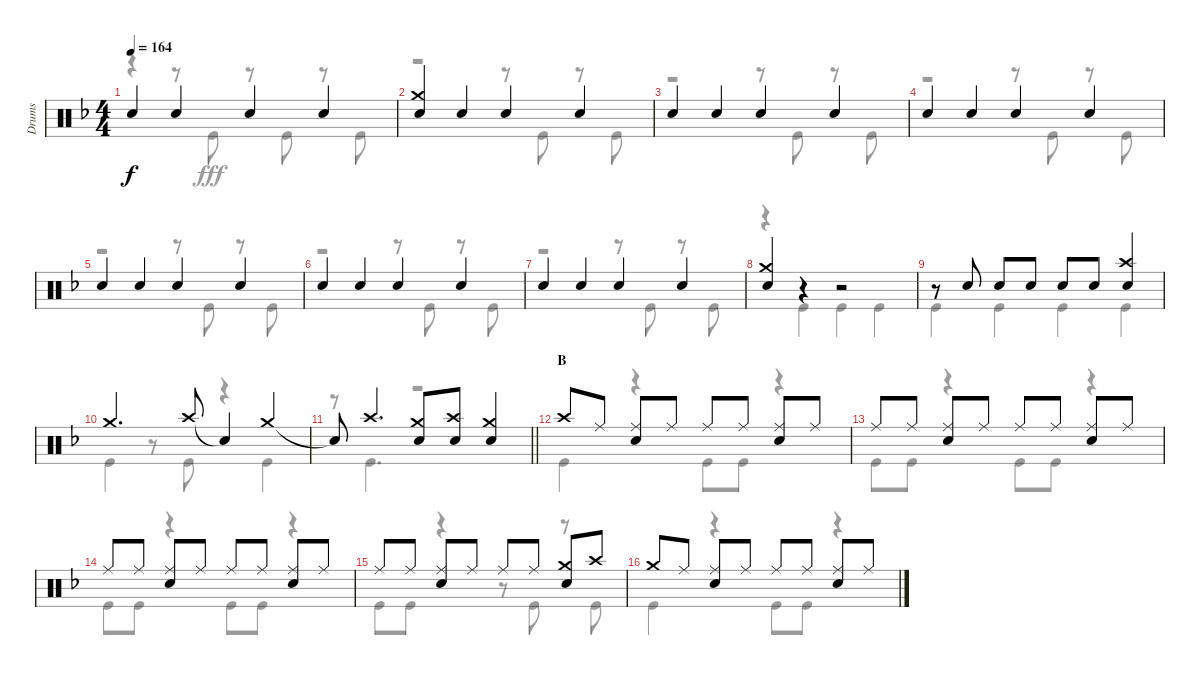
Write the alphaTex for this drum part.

\track ("Drums" "Drums") {instrument percussion}
\staff {score}
\articulation defaults
\voice
\ts (4 4)
\tempo 164
\clef neutral
\ks f "Snare (hit) 2".4{dy f} "Snare (hit) 2".4 "Snare (hit) 2".4 "Snare (hit) 2".4
|
("Crash medium (hit)" "Snare (hit) 2").4 "Snare (hit) 2".4 "Snare (hit) 2".4 "Snare (hit) 2".4 |
"Snare (hit) 2".4 "Snare (hit) 2".4 "Snare (hit) 2".4 "Snare (hit) 2".4 |
"Snare (hit) 2".4 "Snare (hit) 2".4 "Snare (hit) 2".4 "Snare (hit) 2".4 |
"Snare (hit) 2".4 "Snare (hit) 2".4 "Snare (hit) 2".4 "Snare (hit) 2".4 |
"Snare (hit) 2".4 "Snare (hit) 2".4 "Snare (hit) 2".4 "Snare (hit) 2".4 |
"Snare (hit) 2".4 "Snare (hit) 2".4 "Snare (hit) 2".4 "Snare (hit) 2".4 |
("Crash medium (hit)" "Snare (hit) 2").4 r.4 r.2 |
r.8 "Snare (hit) 2".8 "Snare (hit) 2".8 "Snare (hit) 2".8 "Snare (hit) 2".8 "Snare (hit) 2".8 ("Crash high (hit)" "Snare (hit) 2").4 |
"Crash medium (hit)".4{d} "Crash high (hit)".8 "Snare (hit)"{t}.4 "Crash medium (hit)".4 |
\barLineRight lightlight "Snare (hit)"{t}.8 "Crash high (hit)".4{d}
("Crash medium (hit)" "Snare (hit) 2").8 ("Crash high (hit)" "Snare (hit) 2").8 ("Crash medium (hit)" "Snare (hit) 2").4 |
\section ("" "B")
"Crash high (hit)".8 "Ride (middle)".8 ("Ride (middle)" "Snare (hit) 2").8 "Ride (middle)".8 "Ride (middle)".8 "Ride (middle)".8 ("Ride (middle)" "Snare (hit) 2").8 "Ride (middle)".8 |
"Ride (middle)".8 "Ride (middle)".8 ("Ride (middle)" "Snare (hit) 2").8 "Ride (middle)".8 "Ride (middle)".8 "Ride (middle)".8 ("Ride (middle)" "Snare (hit) 2").8 "Ride (middle)".8 |
"Ride (middle)".8 "Ride (middle)".8 ("Ride (middle)" "Snare (hit) 2").8 "Ride (middle)".8 "Ride (middle)".8 "Ride (middle)".8 ("Ride (middle)" "Snare (hit) 2").8 "Ride (middle)".8 |
"Ride (middle)".8 "Ride (middle)".8 ("Ride (middle)" "Snare (hit) 2").8 "Ride (middle)".8 "Ride (middle)".8 "Ride (middle)".8 ("Crash medium (hit)" "Snare (hit) 2").8 "Crash high (hit)".8 |
"Crash medium (hit)".8 "Ride (middle)".8 ("Ride (middle)" "Snare (hit) 2").8 "Ride (middle)".8 "Ride (middle)".8 "Ride (middle)".8 ("Ride (middle)" "Snare (hit) 2").8 "Ride (middle)".8
\voice
\clef neutral
\ottava regular
\simile none
\ks f
r.4{dy fff} r.8 "Kick (hit)".8 r.8 "Kick (hit)".8 r.8 "Kick (hit)".8 |
r.2 r.8 "Kick (hit)".8 r.8 "Kick (hit)".8 |
r.2 r.8 "Kick (hit)".8 r.8 "Kick (hit)".8 |
r.2 r.8 "Kick (hit)".8 r.8 "Kick (hit)".8 |
r.2 r.8 "Kick (hit)".8 r.8 "Kick (hit)".8 |
r.2 r.8 "Kick (hit)".8 r.8 "Kick (hit)".8 |
r.2 r.8 "Kick (hit)".8 r.8 "Kick (hit)".8 |
r.4 "Kick (hit)".4 "Kick (hit)".4 "Kick (hit)".4 |
"Kick (hit)".4 "Kick (hit)".4 "Kick (hit)".4 "Kick (hit)".4 |
"Kick (hit)".4 r.8 "Kick (hit)".8 r.4 "Kick (hit)".4 |
\barLineRight lightlight
r.8 "Kick (hit)".4{d} r.2 |
"Kick (hit)".4 r.4 "Kick (hit)".8 "Kick (hit)".8 r.4 |
"Kick (hit)".8 "Kick (hit)".8 r.4 "Kick (hit)".8 "Kick (hit)".8 r.4 |
"Kick (hit)".8 "Kick (hit)".8 r.4 "Kick (hit)".8 "Kick (hit)".8 r.4 |
"Kick (hit)".8 "Kick (hit)".8 r.4 r.8 "Kick (hit)".8 r.8 "Kick (hit)".8 |
"Kick (hit)".4 r.4 "Kick (hit)".8 "Kick (hit)".8 r.4
